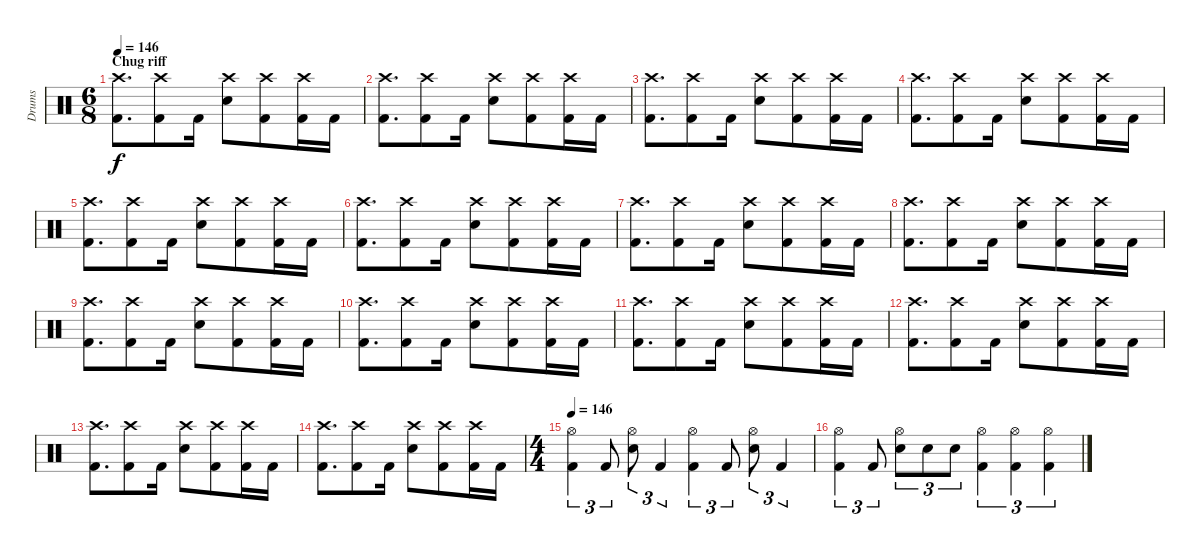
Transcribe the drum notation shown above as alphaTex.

\track ("Drums" "Drums") {instrument percussion}
\staff {score}
\articulation defaults
\ts (6 8)
\section ("" "Chug riff")
\tempo 146
\tempo 110
\tempo 146
\clef neutral
\ks c
("Crash high (hit)" "Kick (hit) 2").8{d dy f} ("Crash high (hit)" "Kick (hit) 2").8 "Kick (hit) 2".16 ("Crash high (hit)" "Electric Snare (hit)").8 ("Crash high (hit)" "Kick (hit) 2").8 ("Crash high (hit)" "Kick (hit) 2").16 "Kick (hit) 2".16 |
("Crash high (hit)" "Kick (hit) 2").8{d} ("Crash high (hit)" "Kick (hit) 2").8 "Kick (hit) 2".16 ("Crash high (hit)" "Electric Snare (hit)").8 ("Crash high (hit)" "Kick (hit) 2").8 ("Crash high (hit)" "Kick (hit) 2").16 "Kick (hit) 2".16 |
("Crash high (hit)" "Kick (hit) 2").8{d} ("Crash high (hit)" "Kick (hit) 2").8 "Kick (hit) 2".16 ("Crash high (hit)" "Electric Snare (hit)").8 ("Crash high (hit)" "Kick (hit) 2").8 ("Crash high (hit)" "Kick (hit) 2").16 "Kick (hit) 2".16 |
("Crash high (hit)" "Kick (hit) 2").8{d} ("Crash high (hit)" "Kick (hit) 2").8 "Kick (hit) 2".16 ("Crash high (hit)" "Electric Snare (hit)").8 ("Crash high (hit)" "Kick (hit) 2").8 ("Crash high (hit)" "Kick (hit) 2").16 "Kick (hit) 2".16 |
("Crash high (hit)" "Kick (hit) 2").8{d} ("Crash high (hit)" "Kick (hit) 2").8 "Kick (hit) 2".16 ("Crash high (hit)" "Electric Snare (hit)").8 ("Crash high (hit)" "Kick (hit) 2").8 ("Crash high (hit)" "Kick (hit) 2").16 "Kick (hit) 2".16 |
("Crash high (hit)" "Kick (hit) 2").8{d} ("Crash high (hit)" "Kick (hit) 2").8 "Kick (hit) 2".16 ("Crash high (hit)" "Electric Snare (hit)").8 ("Crash high (hit)" "Kick (hit) 2").8 ("Crash high (hit)" "Kick (hit) 2").16 "Kick (hit) 2".16 |
("Crash high (hit)" "Kick (hit) 2").8{d} ("Crash high (hit)" "Kick (hit) 2").8 "Kick (hit) 2".16 ("Crash high (hit)" "Electric Snare (hit)").8 ("Crash high (hit)" "Kick (hit) 2").8 ("Crash high (hit)" "Kick (hit) 2").16 "Kick (hit) 2".16 |
("Crash high (hit)" "Kick (hit) 2").8{d} ("Crash high (hit)" "Kick (hit) 2").8 "Kick (hit) 2".16 ("Crash high (hit)" "Electric Snare (hit)").8 ("Crash high (hit)" "Kick (hit) 2").8 ("Crash high (hit)" "Kick (hit) 2").16 "Kick (hit) 2".16 |
("Crash high (hit)" "Kick (hit) 2").8{d} ("Crash high (hit)" "Kick (hit) 2").8 "Kick (hit) 2".16 ("Crash high (hit)" "Electric Snare (hit)").8 ("Crash high (hit)" "Kick (hit) 2").8 ("Crash high (hit)" "Kick (hit) 2").16 "Kick (hit) 2".16 |
("Crash high (hit)" "Kick (hit) 2").8{d} ("Crash high (hit)" "Kick (hit) 2").8 "Kick (hit) 2".16 ("Crash high (hit)" "Electric Snare (hit)").8 ("Crash high (hit)" "Kick (hit) 2").8 ("Crash high (hit)" "Kick (hit) 2").16 "Kick (hit) 2".16 |
("Crash high (hit)" "Kick (hit) 2").8{d} ("Crash high (hit)" "Kick (hit) 2").8 "Kick (hit) 2".16 ("Crash high (hit)" "Electric Snare (hit)").8 ("Crash high (hit)" "Kick (hit) 2").8 ("Crash high (hit)" "Kick (hit) 2").16 "Kick (hit) 2".16 |
("Crash high (hit)" "Kick (hit) 2").8{d} ("Crash high (hit)" "Kick (hit) 2").8 "Kick (hit) 2".16 ("Crash high (hit)" "Electric Snare (hit)").8 ("Crash high (hit)" "Kick (hit) 2").8 ("Crash high (hit)" "Kick (hit) 2").16 "Kick (hit) 2".16 |
("Crash high (hit)" "Kick (hit) 2").8{d} ("Crash high (hit)" "Kick (hit) 2").8 "Kick (hit) 2".16 ("Crash high (hit)" "Electric Snare (hit)").8 ("Crash high (hit)" "Kick (hit) 2").8 ("Crash high (hit)" "Kick (hit) 2").16 "Kick (hit) 2".16 |
("Crash high (hit)" "Kick (hit) 2").8{d} ("Crash high (hit)" "Kick (hit) 2").8 "Kick (hit) 2".16 ("Crash high (hit)" "Electric Snare (hit)").8 ("Crash high (hit)" "Kick (hit) 2").8 ("Crash high (hit)" "Kick (hit) 2").16 "Kick (hit) 2".16 |
\ts (4 4)
\tempo 146
("Hi-Hat (open)" "Kick (hit) 2").4{tu (3 2)} "Kick (hit) 2".8{tu (3 2)} ("Hi-Hat (open)" "Electric Snare (hit)").8{tu (3 2)} "Kick (hit) 2".4{tu (3 2)} ("Hi-Hat (open)" "Kick (hit) 2").4{tu (3 2)} "Kick (hit) 2".8{tu (3 2)} ("Hi-Hat (open)" "Electric Snare (hit)").8{tu (3 2)} "Kick (hit) 2".4{tu (3 2)} |
("Hi-Hat (open)" "Kick (hit) 2").4{tu (3 2)} "Kick (hit) 2".8{tu (3 2)} ("Hi-Hat (open)" "Electric Snare (hit)").8{tu (3 2)} "Electric Snare (hit)".8{tu (3 2)} "Electric Snare (hit)".8{tu (3 2)} ("Hi-Hat (open)" "Kick (hit) 2").4{tu (3 2)} ("Hi-Hat (open)" "Kick (hit) 2").4{tu (3 2)} ("Hi-Hat (open)" "Kick (hit) 2").4{tu (3 2)}
